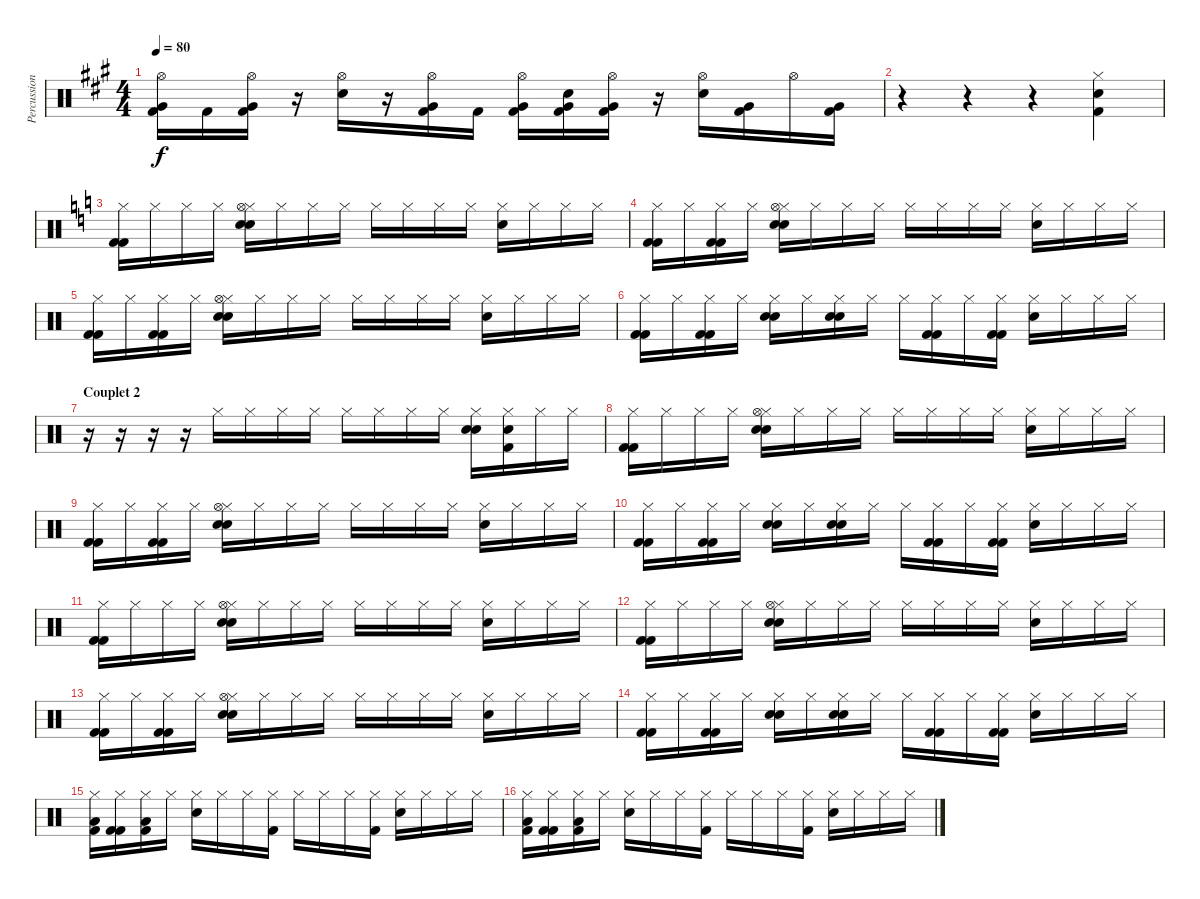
\track ("Percussions" "Percussion") {instrument percussion}
\staff {score}
\articulation defaults
\ts (4 4)
\tempo 80
\clef neutral
\ks a
("Hi-Hat (open)" "Kick (hit) 2" "Very Low Tom (hit)").16{dy f} "Kick (hit) 2".16 ("Hi-Hat (open)" "Kick (hit) 2" "Very Low Tom (hit)").16 r.16 ("Hi-Hat (open)" "Electric Snare (hit)").16 r.16 ("Hi-Hat (open)" "Kick (hit) 2" "Very Low Tom (hit)").16 "Kick (hit) 2".16 ("Hi-Hat (open)" "Kick (hit) 2" "Very Low Tom (hit)").16 ("Electric Snare (hit)" "Kick (hit) 2" "Very Low Tom (hit)").16 ("Hi-Hat (open)" "Kick (hit) 2" "Very Low Tom (hit)").16 r.16 ("Hi-Hat (open)" "Electric Snare (hit)").16 ("Kick (hit) 2" "Very Low Tom (hit)").16 "Hi-Hat (open)".16 ("Kick (hit) 2" "Very Low Tom (hit)").16 |
r.4 r.4 r.4 ("Hi-Hat (closed)" "Electric Snare (hit)" "Kick (hit) 2").4 |
\ks c
("Hi-Hat (closed)" "Kick (hit) 2" "Kick (hit) 2").16 "Hi-Hat (closed)".16 "Hi-Hat (closed)".16 "Hi-Hat (closed)".16 ("Electric Snare (hit)" "Hi-Hat (closed)" "Electric Snare (hit)" "Hi-Hat (open)").16 "Hi-Hat (closed)".16 "Hi-Hat (closed)".16 "Hi-Hat (closed)".16 "Hi-Hat (closed)".16 "Hi-Hat (closed)".16 "Hi-Hat (closed)".16 "Hi-Hat (closed)".16 ("Electric Snare (hit)" "Hi-Hat (closed)").16 "Hi-Hat (closed)".16 "Hi-Hat (closed)".16 "Hi-Hat (closed)".16 |
("Hi-Hat (closed)" "Kick (hit) 2" "Kick (hit) 2").16 "Hi-Hat (closed)".16 ("Hi-Hat (closed)" "Kick (hit) 2" "Kick (hit) 2").16 "Hi-Hat (closed)".16 ("Electric Snare (hit)" "Hi-Hat (closed)" "Electric Snare (hit)" "Hi-Hat (open)").16 "Hi-Hat (closed)".16 "Hi-Hat (closed)".16 "Hi-Hat (closed)".16 "Hi-Hat (closed)".16 "Hi-Hat (closed)".16 "Hi-Hat (closed)".16 "Hi-Hat (closed)".16 ("Electric Snare (hit)" "Hi-Hat (closed)").16 "Hi-Hat (closed)".16 "Hi-Hat (closed)".16 "Hi-Hat (closed)".16 |
("Hi-Hat (closed)" "Kick (hit) 2" "Kick (hit) 2").16 "Hi-Hat (closed)".16 ("Hi-Hat (closed)" "Kick (hit) 2" "Kick (hit) 2").16 "Hi-Hat (closed)".16 ("Electric Snare (hit)" "Hi-Hat (closed)" "Electric Snare (hit)" "Hi-Hat (open)").16 "Hi-Hat (closed)".16 "Hi-Hat (closed)".16 "Hi-Hat (closed)".16 "Hi-Hat (closed)".16 "Hi-Hat (closed)".16 "Hi-Hat (closed)".16 "Hi-Hat (closed)".16 ("Electric Snare (hit)" "Hi-Hat (closed)").16 "Hi-Hat (closed)".16 "Hi-Hat (closed)".16 "Hi-Hat (closed)".16 |
("Hi-Hat (closed)" "Kick (hit) 2" "Kick (hit) 2").16 "Hi-Hat (closed)".16 ("Hi-Hat (closed)" "Kick (hit) 2" "Kick (hit) 2").16 "Hi-Hat (closed)".16 ("Electric Snare (hit)" "Hi-Hat (closed)" "Electric Snare (hit)").16 "Hi-Hat (closed)".16 ("Electric Snare (hit)" "Hi-Hat (closed)" "Electric Snare (hit)").16 "Hi-Hat (closed)".16 "Hi-Hat (closed)".16 ("Hi-Hat (closed)" "Kick (hit) 2" "Kick (hit) 2").16 "Hi-Hat (closed)".16 ("Hi-Hat (closed)" "Kick (hit) 2" "Kick (hit) 2").16 ("Electric Snare (hit)" "Hi-Hat (closed)").16 "Hi-Hat (closed)".16 "Hi-Hat (closed)".16 "Hi-Hat (closed)".16 |
\section ("" "Couplet 2")
r.16 r.16 r.16 r.16 "Hi-Hat (closed)".16 "Hi-Hat (closed)".16 "Hi-Hat (closed)".16 "Hi-Hat (closed)".16 "Hi-Hat (closed)".16 "Hi-Hat (closed)".16 "Hi-Hat (closed)".16 "Hi-Hat (closed)".16 ("Electric Snare (hit)" "Hi-Hat (closed)" "Electric Snare (hit)").16 ("Electric Snare (hit)" "Hi-Hat (closed)" "Kick (hit) 2").16 "Hi-Hat (closed)".16 "Hi-Hat (closed)".16 |
("Hi-Hat (closed)" "Kick (hit) 2" "Kick (hit) 2").16 "Hi-Hat (closed)".16 "Hi-Hat (closed)".16 "Hi-Hat (closed)".16 ("Electric Snare (hit)" "Hi-Hat (closed)" "Electric Snare (hit)" "Hi-Hat (open)").16 "Hi-Hat (closed)".16 "Hi-Hat (closed)".16 "Hi-Hat (closed)".16 "Hi-Hat (closed)".16 "Hi-Hat (closed)".16 "Hi-Hat (closed)".16 "Hi-Hat (closed)".16 ("Electric Snare (hit)" "Hi-Hat (closed)").16 "Hi-Hat (closed)".16 "Hi-Hat (closed)".16 "Hi-Hat (closed)".16 |
("Hi-Hat (closed)" "Kick (hit) 2" "Kick (hit) 2").16 "Hi-Hat (closed)".16 ("Hi-Hat (closed)" "Kick (hit) 2" "Kick (hit) 2").16 "Hi-Hat (closed)".16 ("Electric Snare (hit)" "Hi-Hat (closed)" "Electric Snare (hit)" "Hi-Hat (open)").16 "Hi-Hat (closed)".16 "Hi-Hat (closed)".16 "Hi-Hat (closed)".16 "Hi-Hat (closed)".16 "Hi-Hat (closed)".16 "Hi-Hat (closed)".16 "Hi-Hat (closed)".16 ("Electric Snare (hit)" "Hi-Hat (closed)").16 "Hi-Hat (closed)".16 "Hi-Hat (closed)".16 "Hi-Hat (closed)".16 |
("Hi-Hat (closed)" "Kick (hit) 2" "Kick (hit) 2").16 "Hi-Hat (closed)".16 ("Hi-Hat (closed)" "Kick (hit) 2" "Kick (hit) 2").16 "Hi-Hat (closed)".16 ("Electric Snare (hit)" "Hi-Hat (closed)" "Electric Snare (hit)").16 "Hi-Hat (closed)".16 ("Electric Snare (hit)" "Hi-Hat (closed)" "Electric Snare (hit)").16 "Hi-Hat (closed)".16 "Hi-Hat (closed)".16 ("Hi-Hat (closed)" "Kick (hit) 2" "Kick (hit) 2").16 "Hi-Hat (closed)".16 ("Hi-Hat (closed)" "Kick (hit) 2" "Kick (hit) 2").16 ("Electric Snare (hit)" "Hi-Hat (closed)").16 "Hi-Hat (closed)".16 "Hi-Hat (closed)".16 "Hi-Hat (closed)".16 |
("Hi-Hat (closed)" "Kick (hit) 2" "Kick (hit) 2").16 "Hi-Hat (closed)".16 "Hi-Hat (closed)".16 "Hi-Hat (closed)".16 ("Electric Snare (hit)" "Hi-Hat (closed)" "Electric Snare (hit)" "Hi-Hat (open)").16 "Hi-Hat (closed)".16 "Hi-Hat (closed)".16 "Hi-Hat (closed)".16 "Hi-Hat (closed)".16 "Hi-Hat (closed)".16 "Hi-Hat (closed)".16 "Hi-Hat (closed)".16 ("Electric Snare (hit)" "Hi-Hat (closed)").16 "Hi-Hat (closed)".16 "Hi-Hat (closed)".16 "Hi-Hat (closed)".16 |
("Hi-Hat (closed)" "Kick (hit) 2" "Kick (hit) 2").16 "Hi-Hat (closed)".16 "Hi-Hat (closed)".16 "Hi-Hat (closed)".16 ("Electric Snare (hit)" "Hi-Hat (closed)" "Electric Snare (hit)" "Hi-Hat (open)").16 "Hi-Hat (closed)".16 "Hi-Hat (closed)".16 "Hi-Hat (closed)".16 "Hi-Hat (closed)".16 "Hi-Hat (closed)".16 "Hi-Hat (closed)".16 "Hi-Hat (closed)".16 ("Electric Snare (hit)" "Hi-Hat (closed)").16 "Hi-Hat (closed)".16 "Hi-Hat (closed)".16 "Hi-Hat (closed)".16 |
("Hi-Hat (closed)" "Kick (hit) 2" "Kick (hit) 2").16 "Hi-Hat (closed)".16 ("Hi-Hat (closed)" "Kick (hit) 2" "Kick (hit) 2").16 "Hi-Hat (closed)".16 ("Electric Snare (hit)" "Hi-Hat (closed)" "Electric Snare (hit)" "Hi-Hat (open)").16 "Hi-Hat (closed)".16 "Hi-Hat (closed)".16 "Hi-Hat (closed)".16 "Hi-Hat (closed)".16 "Hi-Hat (closed)".16 "Hi-Hat (closed)".16 "Hi-Hat (closed)".16 ("Electric Snare (hit)" "Hi-Hat (closed)").16 "Hi-Hat (closed)".16 "Hi-Hat (closed)".16 "Hi-Hat (closed)".16 |
("Hi-Hat (closed)" "Kick (hit) 2" "Kick (hit) 2").16 "Hi-Hat (closed)".16 ("Hi-Hat (closed)" "Kick (hit) 2" "Kick (hit) 2").16 "Hi-Hat (closed)".16 ("Electric Snare (hit)" "Hi-Hat (closed)" "Electric Snare (hit)").16 "Hi-Hat (closed)".16 ("Electric Snare (hit)" "Hi-Hat (closed)" "Electric Snare (hit)").16 "Hi-Hat (closed)".16 "Hi-Hat (closed)".16 ("Hi-Hat (closed)" "Kick (hit) 2" "Kick (hit) 2").16 "Hi-Hat (closed)".16 ("Hi-Hat (closed)" "Kick (hit) 2" "Kick (hit) 2").16 ("Electric Snare (hit)" "Hi-Hat (closed)").16 "Hi-Hat (closed)".16 "Hi-Hat (closed)".16 "Hi-Hat (closed)".16 |
("Hi-Hat (closed)" "Kick (hit) 2" "Low Tom (hit)").16 ("Hi-Hat (closed)" "Kick (hit) 2" "Kick (hit) 2").16 ("Hi-Hat (closed)" "Kick (hit) 2" "Low Tom (hit)").16 "Hi-Hat (closed)".16 ("Electric Snare (hit)" "Hi-Hat (closed)").16 "Hi-Hat (closed)".16 "Hi-Hat (closed)".16 ("Hi-Hat (closed)" "Kick (hit) 2").16 "Hi-Hat (closed)".16 "Hi-Hat (closed)".16 "Hi-Hat (closed)".16 ("Hi-Hat (closed)" "Kick (hit) 2").16 ("Electric Snare (hit)" "Hi-Hat (closed)").16 "Hi-Hat (closed)".16 "Hi-Hat (closed)".16 "Hi-Hat (closed)".16 |
("Hi-Hat (closed)" "Kick (hit) 2" "Low Tom (hit)").16 ("Hi-Hat (closed)" "Kick (hit) 2" "Kick (hit) 2").16 ("Hi-Hat (closed)" "Kick (hit) 2" "Low Tom (hit)").16 "Hi-Hat (closed)".16 ("Electric Snare (hit)" "Hi-Hat (closed)").16 "Hi-Hat (closed)".16 "Hi-Hat (closed)".16 ("Hi-Hat (closed)" "Kick (hit) 2").16 "Hi-Hat (closed)".16 "Hi-Hat (closed)".16 "Hi-Hat (closed)".16 ("Hi-Hat (closed)" "Kick (hit) 2").16 ("Electric Snare (hit)" "Hi-Hat (closed)").16 "Hi-Hat (closed)".16 "Hi-Hat (closed)".16 "Hi-Hat (closed)".16
